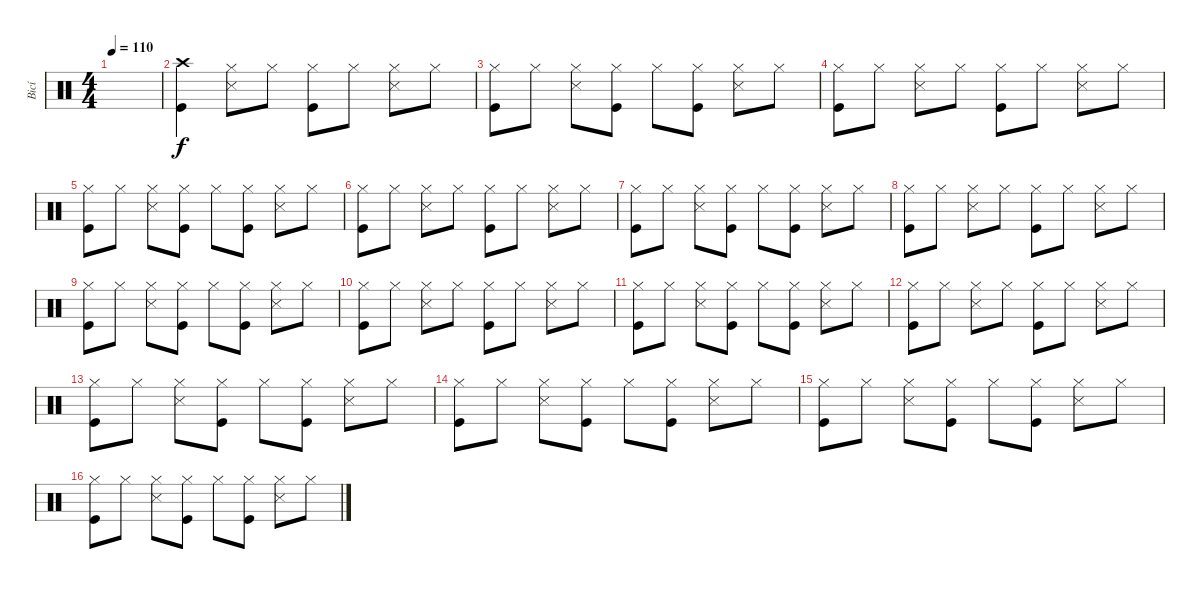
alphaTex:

\track ("Bicí" "Bicí") {instrument percussion}
\staff
\articulation defaults
\ts (4 4)
\tempo 110
\clef neutral
\ks c
|
("Crash high (hit)" "Kick (hit)").4 ("Hi-Hat (closed)" "Snare (side stick) 3").8 "Hi-Hat (closed)".8 ("Hi-Hat (closed)" "Kick (hit)").8 "Hi-Hat (closed)".8 ("Hi-Hat (closed)" "Snare (side stick) 3").8 "Hi-Hat (closed)".8 |
("Hi-Hat (closed)" "Kick (hit)").8 "Hi-Hat (closed)".8 ("Hi-Hat (closed)" "Snare (side stick) 3").8 ("Hi-Hat (closed)" "Kick (hit)").8 "Hi-Hat (closed)".8 ("Hi-Hat (closed)" "Kick (hit)").8 ("Hi-Hat (closed)" "Snare (side stick) 3").8 "Hi-Hat (closed)".8 |
("Hi-Hat (closed)" "Kick (hit)").8 "Hi-Hat (closed)".8 ("Hi-Hat (closed)" "Snare (side stick) 3").8 "Hi-Hat (closed)".8 ("Hi-Hat (closed)" "Kick (hit)").8 "Hi-Hat (closed)".8 ("Hi-Hat (closed)" "Snare (side stick) 3").8 "Hi-Hat (closed)".8 |
("Hi-Hat (closed)" "Kick (hit)").8 "Hi-Hat (closed)".8 ("Hi-Hat (closed)" "Snare (side stick) 3").8 ("Hi-Hat (closed)" "Kick (hit)").8 "Hi-Hat (closed)".8 ("Hi-Hat (closed)" "Kick (hit)").8 ("Hi-Hat (closed)" "Snare (side stick) 3").8 "Hi-Hat (closed)".8 |
("Hi-Hat (closed)" "Kick (hit)").8 "Hi-Hat (closed)".8 ("Hi-Hat (closed)" "Snare (side stick) 3").8 "Hi-Hat (closed)".8 ("Hi-Hat (closed)" "Kick (hit)").8 "Hi-Hat (closed)".8 ("Hi-Hat (closed)" "Snare (side stick) 3").8 "Hi-Hat (closed)".8 |
("Hi-Hat (closed)" "Kick (hit)").8 "Hi-Hat (closed)".8 ("Hi-Hat (closed)" "Snare (side stick) 3").8 ("Hi-Hat (closed)" "Kick (hit)").8 "Hi-Hat (closed)".8 ("Hi-Hat (closed)" "Kick (hit)").8 ("Hi-Hat (closed)" "Snare (side stick) 3").8 "Hi-Hat (closed)".8 |
("Hi-Hat (closed)" "Kick (hit)").8 "Hi-Hat (closed)".8 ("Hi-Hat (closed)" "Snare (side stick) 3").8 "Hi-Hat (closed)".8 ("Hi-Hat (closed)" "Kick (hit)").8 "Hi-Hat (closed)".8 ("Hi-Hat (closed)" "Snare (side stick) 3").8 "Hi-Hat (closed)".8 |
("Hi-Hat (closed)" "Kick (hit)").8 "Hi-Hat (closed)".8 ("Hi-Hat (closed)" "Snare (side stick) 3").8 ("Hi-Hat (closed)" "Kick (hit)").8 "Hi-Hat (closed)".8 ("Hi-Hat (closed)" "Kick (hit)").8 ("Hi-Hat (closed)" "Snare (side stick) 3").8 "Hi-Hat (closed)".8 |
("Hi-Hat (closed)" "Kick (hit)").8 "Hi-Hat (closed)".8 ("Hi-Hat (closed)" "Snare (side stick) 3").8 "Hi-Hat (closed)".8 ("Hi-Hat (closed)" "Kick (hit)").8 "Hi-Hat (closed)".8 ("Hi-Hat (closed)" "Snare (side stick) 3").8 "Hi-Hat (closed)".8 |
("Hi-Hat (closed)" "Kick (hit)").8 "Hi-Hat (closed)".8 ("Hi-Hat (closed)" "Snare (side stick) 3").8 ("Hi-Hat (closed)" "Kick (hit)").8 "Hi-Hat (closed)".8 ("Hi-Hat (closed)" "Kick (hit)").8 ("Hi-Hat (closed)" "Snare (side stick) 3").8 "Hi-Hat (closed)".8 |
("Hi-Hat (closed)" "Kick (hit)").8 "Hi-Hat (closed)".8 ("Hi-Hat (closed)" "Snare (side stick) 3").8 "Hi-Hat (closed)".8 ("Hi-Hat (closed)" "Kick (hit)").8 "Hi-Hat (closed)".8 ("Hi-Hat (closed)" "Snare (side stick) 3").8 "Hi-Hat (closed)".8 |
("Hi-Hat (closed)" "Kick (hit)").8 "Hi-Hat (closed)".8 ("Hi-Hat (closed)" "Snare (side stick) 3").8 ("Hi-Hat (closed)" "Kick (hit)").8 "Hi-Hat (closed)".8 ("Hi-Hat (closed)" "Kick (hit)").8 ("Hi-Hat (closed)" "Snare (side stick) 3").8 "Hi-Hat (closed)".8 |
("Hi-Hat (closed)" "Kick (hit)").8 "Hi-Hat (closed)".8 ("Hi-Hat (closed)" "Snare (side stick) 3").8 ("Hi-Hat (closed)" "Kick (hit)").8 "Hi-Hat (closed)".8 ("Hi-Hat (closed)" "Kick (hit)").8 ("Hi-Hat (closed)" "Snare (side stick) 3").8 "Hi-Hat (closed)".8 |
("Hi-Hat (closed)" "Kick (hit)").8 "Hi-Hat (closed)".8 ("Hi-Hat (closed)" "Snare (side stick) 3").8 ("Hi-Hat (closed)" "Kick (hit)").8 "Hi-Hat (closed)".8 ("Hi-Hat (closed)" "Kick (hit)").8 ("Hi-Hat (closed)" "Snare (side stick) 3").8 "Hi-Hat (closed)".8 |
("Hi-Hat (closed)" "Kick (hit)").8 "Hi-Hat (closed)".8 ("Hi-Hat (closed)" "Snare (side stick) 3").8 ("Hi-Hat (closed)" "Kick (hit)").8 "Hi-Hat (closed)".8 ("Hi-Hat (closed)" "Kick (hit)").8 ("Hi-Hat (closed)" "Snare (side stick) 3").8 "Hi-Hat (closed)".8
